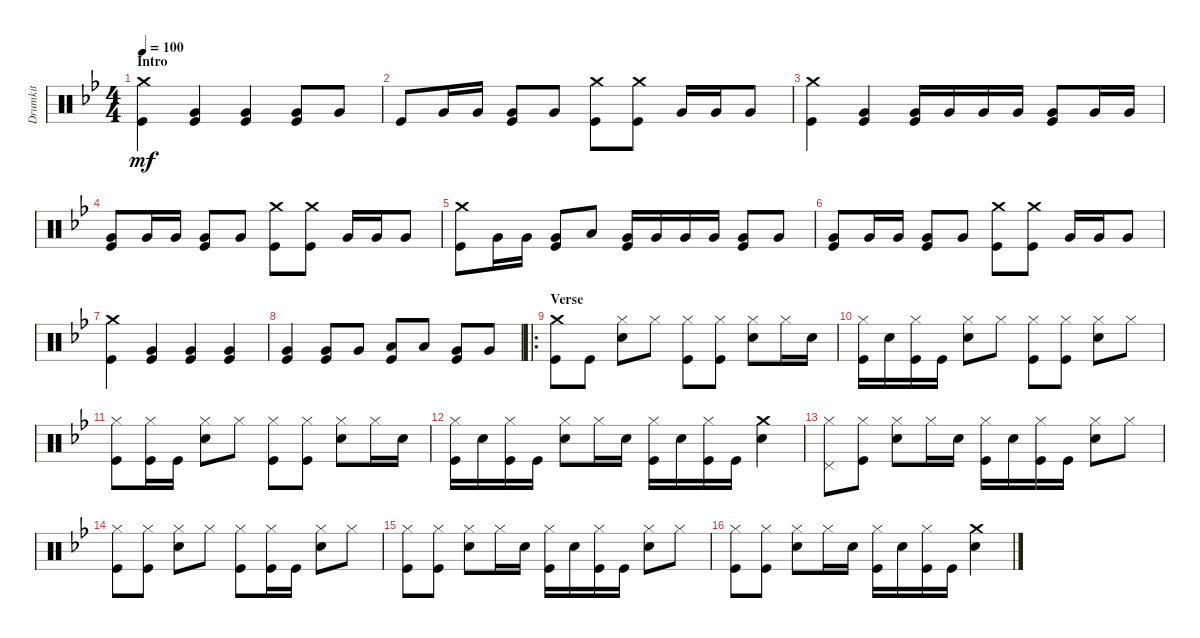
\track ("Drumkit" "Drumkit") {instrument percussion}
\staff {score}
\articulation defaults
\ts (4 4)
\section ("" "Intro")
\tempo 100
\clef neutral
\ks bb
("Kick (hit)" "Crash medium (hit)").4{dy mf} ("Kick (hit)" "Very Low Tom (hit)").4 ("Very Low Tom (hit)" "Kick (hit)").4 ("Kick (hit)" "Very Low Tom (hit)").8 "Very Low Tom (hit)".8 |
"Kick (hit)".8 "Very Low Tom (hit)".16 "Very Low Tom (hit)".16 ("Kick (hit)" "Very Low Tom (hit)").8 "Very Low Tom (hit)".8 ("Crash medium (hit)" "Kick (hit)").8 ("Kick (hit)" "Crash medium (hit)").8 "Very Low Tom (hit)".16 "Very Low Tom (hit)".16 "Very Low Tom (hit)".8 |
("Kick (hit)" "Crash medium (hit)").4 ("Kick (hit)" "Very Low Tom (hit)").4 ("Very Low Tom (hit)" "Kick (hit)").16 "Very Low Tom (hit)".16 "Very Low Tom (hit)".16 "Very Low Tom (hit)".16 ("Very Low Tom (hit)" "Kick (hit)").8 "Very Low Tom (hit)".16 "Very Low Tom (hit)".16 |
("Very Low Tom (hit)" "Kick (hit)").8 "Very Low Tom (hit)".16 "Very Low Tom (hit)".16 ("Kick (hit)" "Very Low Tom (hit)").8 "Very Low Tom (hit)".8 ("Kick (hit)" "Crash medium (hit)").8 ("Crash medium (hit)" "Kick (hit)").8 "Very Low Tom (hit)".16 "Very Low Tom (hit)".16 "Very Low Tom (hit)".8 |
("Crash medium (hit)" "Kick (hit)").8 "Very Low Tom (hit)".16 "Very Low Tom (hit)".16 ("Kick (hit)" "Very Low Tom (hit)").8 "Low Tom (hit)".8 ("Kick (hit)" "Very Low Tom (hit)").16 "Very Low Tom (hit)".16 "Very Low Tom (hit)".16 "Very Low Tom (hit)".16 ("Very Low Tom (hit)" "Kick (hit)").8 "Very Low Tom (hit)".8 |
("Very Low Tom (hit)" "Kick (hit)").8 "Very Low Tom (hit)".16 "Very Low Tom (hit)".16 ("Kick (hit)" "Very Low Tom (hit)").8 "Very Low Tom (hit)".8 ("Kick (hit)" "Crash medium (hit)").8 ("Crash medium (hit)" "Kick (hit)").8 "Very Low Tom (hit)".16 "Very Low Tom (hit)".16 "Very Low Tom (hit)".8 |
("Kick (hit)" "Crash medium (hit)").4 ("Kick (hit)" "Very Low Tom (hit)").4 ("Very Low Tom (hit)" "Kick (hit)").4 ("Very Low Tom (hit)" "Kick (hit)").4 |
("Kick (hit)" "Very Low Tom (hit)").4 ("Very Low Tom (hit)" "Kick (hit)").8 "Very Low Tom (hit)".8 ("Low Floor Tom (hit)" "Kick (hit)").8 "Low Floor Tom (hit)".8 ("Very Low Tom (hit)" "Kick (hit)").8 "Very Low Tom (hit)".8 |
\ro
\section ("" "Verse")
("Crash medium (hit)" "Kick (hit)").8 "Kick (hit)".8 ("Snare (hit) 2" "Hi-Hat (closed)").8 "Hi-Hat (closed)".8 ("Hi-Hat (closed)" "Kick (hit)").8 ("Kick (hit)" "Hi-Hat (closed)").8 ("Snare (hit) 2" "Hi-Hat (closed)").8 "Hi-Hat (closed)".16 "Snare (hit) 2".16 |
("Kick (hit)" "Hi-Hat (closed)").16 "Snare (hit) 2".16 ("Kick (hit)" "Hi-Hat (closed)").16 "Kick (hit)".16 ("Snare (hit) 2" "Hi-Hat (closed)").8 "Hi-Hat (closed)".8 ("Hi-Hat (closed)" "Kick (hit)").8 ("Kick (hit)" "Hi-Hat (closed)").8 ("Snare (hit) 2" "Hi-Hat (closed)").8 "Hi-Hat (closed)".8 |
("Kick (hit)" "Hi-Hat (closed)").8 ("Hi-Hat (closed)" "Kick (hit)").16 "Kick (hit)".16 ("Snare (hit) 2" "Hi-Hat (closed)").8 "Hi-Hat (closed)".8 ("Hi-Hat (closed)" "Kick (hit)").8 ("Kick (hit)" "Hi-Hat (closed)").8 ("Snare (hit) 2" "Hi-Hat (closed)").8 "Hi-Hat (closed)".16 "Snare (hit) 2".16 |
("Kick (hit)" "Hi-Hat (closed)").16 "Snare (hit) 2".16 ("Kick (hit)" "Hi-Hat (closed)").16 "Kick (hit)".16 ("Snare (hit) 2" "Hi-Hat (closed)").8 "Hi-Hat (closed)".16 "Snare (hit) 2".16 ("Kick (hit)" "Hi-Hat (closed)").16 "Snare (hit) 2".16 ("Kick (hit)" "Hi-Hat (closed)").16 "Kick (hit)".16 ("Snare (hit) 2" "Crash medium (hit)").4 |
("Pedal Hi-Hat (hit)" "Hi-Hat (closed)").8 ("Hi-Hat (closed)" "Kick (hit)").8 ("Snare (hit) 2" "Hi-Hat (closed)").8 "Hi-Hat (closed)".16 "Snare (hit) 2".16 ("Kick (hit)" "Hi-Hat (closed)").16 "Snare (hit) 2".16 ("Kick (hit)" "Hi-Hat (closed)").16 "Kick (hit)".16 ("Snare (hit) 2" "Hi-Hat (closed)").8 "Hi-Hat (closed)".8 |
("Kick (hit)" "Hi-Hat (closed)").8 ("Hi-Hat (closed)" "Kick (hit)").8 ("Snare (hit) 2" "Hi-Hat (closed)").8 "Hi-Hat (closed)".8 ("Kick (hit)" "Hi-Hat (closed)").8 ("Hi-Hat (closed)" "Kick (hit)").16 "Kick (hit)".16 ("Snare (hit) 2" "Hi-Hat (closed)").8 "Hi-Hat (closed)".8 |
("Kick (hit)" "Hi-Hat (closed)").8 ("Hi-Hat (closed)" "Kick (hit)").8 ("Snare (hit) 2" "Hi-Hat (closed)").8 "Hi-Hat (closed)".16 "Snare (hit) 2".16 ("Kick (hit)" "Hi-Hat (closed)").16 "Snare (hit) 2".16 ("Kick (hit)" "Hi-Hat (closed)").16 "Kick (hit)".16 ("Snare (hit) 2" "Hi-Hat (closed)").8 "Hi-Hat (closed)".8 |
("Kick (hit)" "Hi-Hat (closed)").8 ("Hi-Hat (closed)" "Kick (hit)").8 ("Snare (hit) 2" "Hi-Hat (closed)").8 "Hi-Hat (closed)".16 "Snare (hit) 2".16 ("Kick (hit)" "Hi-Hat (closed)").16 "Snare (hit) 2".16 ("Kick (hit)" "Hi-Hat (closed)").16 "Kick (hit)".16 ("Snare (hit) 2" "Crash medium (hit)").4
